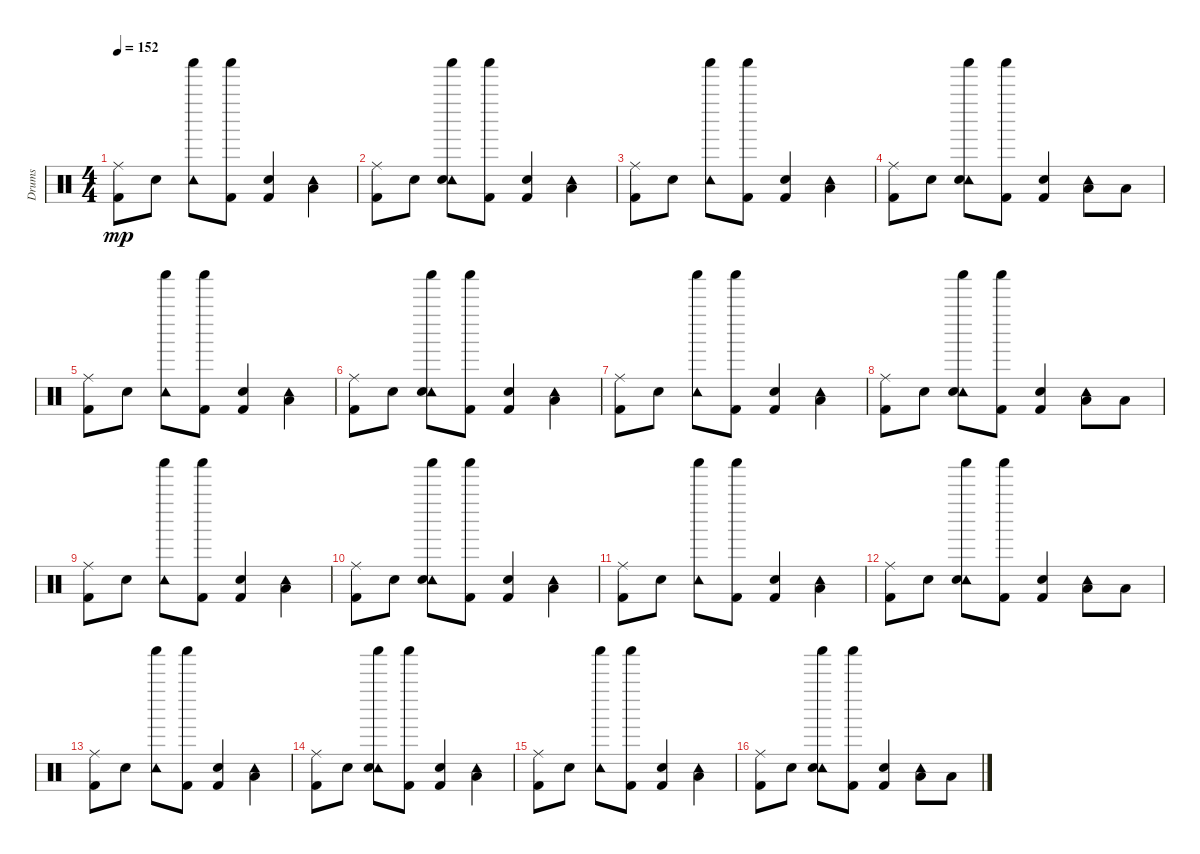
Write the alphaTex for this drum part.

\track ("Drums" "Drums") {instrument percussion}
\staff {score}
\articulation defaults
\ts (4 4)
\tempo 152
\clef neutral
\ks c
("Ride (middle)" "Kick (hit) 2").8{dy mp} "Snare (hit) 2".8 ("Shaker (hit)" "Tambourine (hit)").8 ("Shaker (hit)" "Kick (hit) 2").8 ("Kick (hit) 2" "Snare (hit) 2").4 ("Tambourine (hit)" "Low Tom (hit)").4 |
("Ride (middle)" "Kick (hit) 2").8 "Snare (hit) 2".8 ("Shaker (hit)" "Tambourine (hit)" "Snare (hit) 2").8 ("Shaker (hit)" "Kick (hit) 2").8 ("Kick (hit) 2" "Snare (hit) 2").4 ("Tambourine (hit)" "Low Tom (hit)").4 |
("Ride (middle)" "Kick (hit) 2").8 "Snare (hit) 2".8 ("Shaker (hit)" "Tambourine (hit)").8 ("Shaker (hit)" "Kick (hit) 2").8 ("Kick (hit) 2" "Snare (hit) 2").4 ("Tambourine (hit)" "Low Tom (hit)").4 |
("Ride (middle)" "Kick (hit) 2").8 "Snare (hit) 2".8 ("Shaker (hit)" "Tambourine (hit)" "Snare (hit) 2").8 ("Shaker (hit)" "Kick (hit) 2").8 ("Kick (hit) 2" "Snare (hit) 2").4 ("Tambourine (hit)" "Low Tom (hit)").8 "Low Tom (hit)".8 |
("Ride (middle)" "Kick (hit) 2").8 "Snare (hit) 2".8 ("Shaker (hit)" "Tambourine (hit)").8 ("Shaker (hit)" "Kick (hit) 2").8 ("Kick (hit) 2" "Snare (hit) 2").4 ("Tambourine (hit)" "Low Tom (hit)").4 |
("Ride (middle)" "Kick (hit) 2").8 "Snare (hit) 2".8 ("Shaker (hit)" "Tambourine (hit)" "Snare (hit) 2").8 ("Shaker (hit)" "Kick (hit) 2").8 ("Kick (hit) 2" "Snare (hit) 2").4 ("Tambourine (hit)" "Low Tom (hit)").4 |
("Ride (middle)" "Kick (hit) 2").8 "Snare (hit) 2".8 ("Shaker (hit)" "Tambourine (hit)").8 ("Shaker (hit)" "Kick (hit) 2").8 ("Kick (hit) 2" "Snare (hit) 2").4 ("Tambourine (hit)" "Low Tom (hit)").4 |
("Ride (middle)" "Kick (hit) 2").8 "Snare (hit) 2".8 ("Shaker (hit)" "Tambourine (hit)" "Snare (hit) 2").8 ("Shaker (hit)" "Kick (hit) 2").8 ("Kick (hit) 2" "Snare (hit) 2").4 ("Tambourine (hit)" "Low Tom (hit)").8 "Low Tom (hit)".8 |
("Ride (middle)" "Kick (hit) 2").8 "Snare (hit) 2".8 ("Shaker (hit)" "Tambourine (hit)").8 ("Shaker (hit)" "Kick (hit) 2").8 ("Kick (hit) 2" "Snare (hit) 2").4 ("Tambourine (hit)" "Low Tom (hit)").4 |
("Ride (middle)" "Kick (hit) 2").8 "Snare (hit) 2".8 ("Shaker (hit)" "Tambourine (hit)" "Snare (hit) 2").8 ("Shaker (hit)" "Kick (hit) 2").8 ("Kick (hit) 2" "Snare (hit) 2").4 ("Tambourine (hit)" "Low Tom (hit)").4 |
("Ride (middle)" "Kick (hit) 2").8 "Snare (hit) 2".8 ("Shaker (hit)" "Tambourine (hit)").8 ("Shaker (hit)" "Kick (hit) 2").8 ("Kick (hit) 2" "Snare (hit) 2").4 ("Tambourine (hit)" "Low Tom (hit)").4 |
("Ride (middle)" "Kick (hit) 2").8 "Snare (hit) 2".8 ("Shaker (hit)" "Tambourine (hit)" "Snare (hit) 2").8 ("Shaker (hit)" "Kick (hit) 2").8 ("Kick (hit) 2" "Snare (hit) 2").4 ("Tambourine (hit)" "Low Tom (hit)").8 "Low Tom (hit)".8 |
("Ride (middle)" "Kick (hit) 2").8 "Snare (hit) 2".8 ("Shaker (hit)" "Tambourine (hit)").8 ("Shaker (hit)" "Kick (hit) 2").8 ("Kick (hit) 2" "Snare (hit) 2").4 ("Tambourine (hit)" "Low Tom (hit)").4 |
("Ride (middle)" "Kick (hit) 2").8 "Snare (hit) 2".8 ("Shaker (hit)" "Tambourine (hit)" "Snare (hit) 2").8 ("Shaker (hit)" "Kick (hit) 2").8 ("Kick (hit) 2" "Snare (hit) 2").4 ("Tambourine (hit)" "Low Tom (hit)").4 |
("Ride (middle)" "Kick (hit) 2").8 "Snare (hit) 2".8 ("Shaker (hit)" "Tambourine (hit)").8 ("Shaker (hit)" "Kick (hit) 2").8 ("Kick (hit) 2" "Snare (hit) 2").4 ("Tambourine (hit)" "Low Tom (hit)").4 |
("Ride (middle)" "Kick (hit) 2").8 "Snare (hit) 2".8 ("Shaker (hit)" "Tambourine (hit)" "Snare (hit) 2").8 ("Shaker (hit)" "Kick (hit) 2").8 ("Kick (hit) 2" "Snare (hit) 2").4 ("Tambourine (hit)" "Low Tom (hit)").8 "Low Tom (hit)".8
